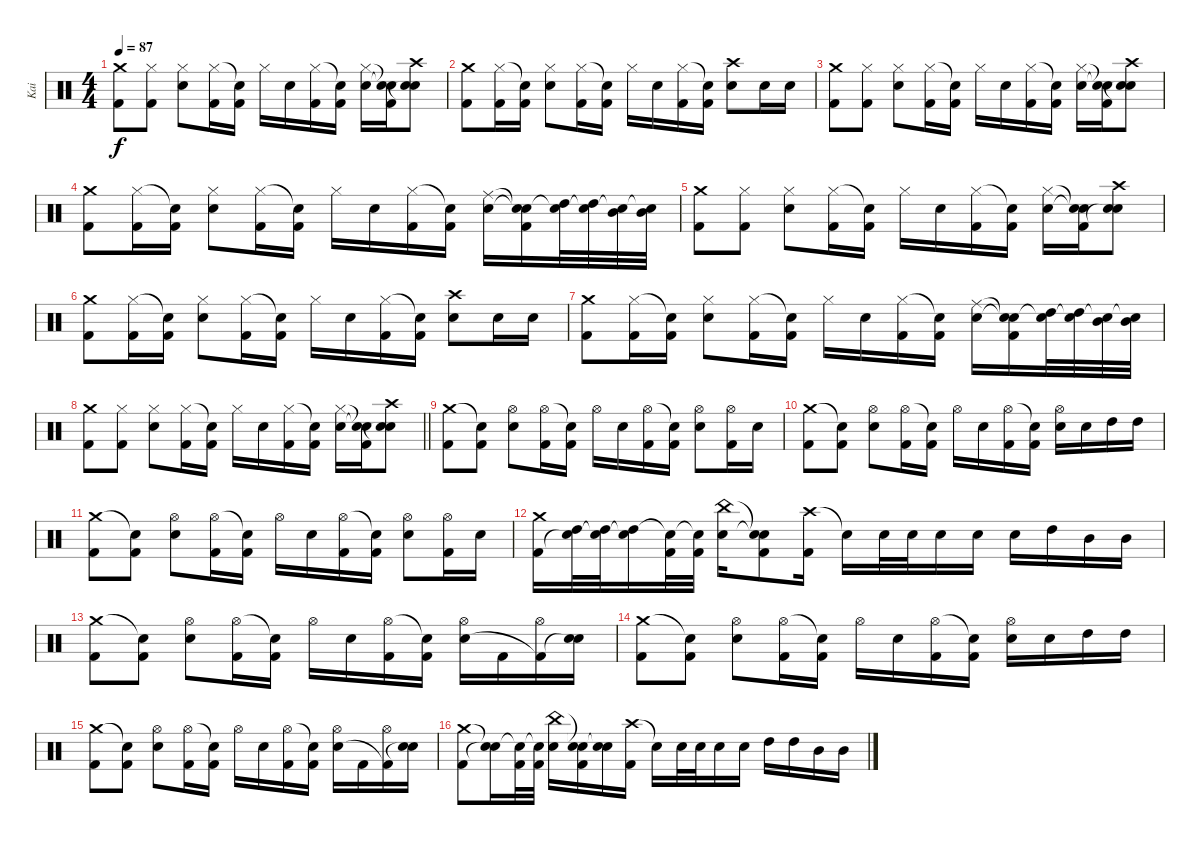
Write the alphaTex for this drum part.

\track ("Kai" "Kai") {instrument percussion}
\staff {score}
\articulation defaults
\ts (4 4)
\tempo 87
\clef neutral
\ks c
("Crash medium (hit)" "Kick (hit) 2").8{dy f} ("Hi-Hat (closed)" "Kick (hit) 2").8 ("Hi-Hat (closed)" "Snare (hit) 2").8 ("Hi-Hat (closed)" "Kick (hit) 2").16 ("Snare (hit)"{t} "Kick (hit) 2").16 "Hi-Hat (closed)".16 "Snare (hit) 2".16 ("Hi-Hat (closed)" "Kick (hit) 2").16 ("Snare (hit)"{t} "Kick (hit) 2").16 ("Hi-Hat (closed)" "Snare (hit) 2").16 ("Snare (hit)"{t} "Snare (hit)"{t} "Kick (hit) 2").16 ("Crash high (hit)" "Snare (hit) 2" "Snare (hit)"{t}).8 |
("Crash medium (hit)" "Kick (hit) 2").8 ("Hi-Hat (closed)" "Kick (hit) 2").16 ("Snare (hit)"{t} "Kick (hit) 2").16 ("Hi-Hat (closed)" "Snare (hit) 2").8 ("Hi-Hat (closed)" "Kick (hit) 2").16 ("Snare (hit)"{t} "Kick (hit) 2").16 "Hi-Hat (closed)".16 "Snare (hit) 2".16 ("Hi-Hat (closed)" "Kick (hit) 2").16 ("Snare (hit)"{t} "Kick (hit) 2").16 ("Crash high (hit)" "Snare (hit) 2").8 "Snare (hit) 2".16 "Snare (hit) 2".16 |
("Crash medium (hit)" "Kick (hit) 2").8 ("Hi-Hat (closed)" "Kick (hit) 2").8 ("Hi-Hat (closed)" "Snare (hit) 2").8 ("Hi-Hat (closed)" "Kick (hit) 2").16 ("Snare (hit)"{t} "Kick (hit) 2").16 "Hi-Hat (closed)".16 "Snare (hit) 2".16 ("Hi-Hat (closed)" "Kick (hit) 2").16 ("Snare (hit)"{t} "Kick (hit) 2").16 ("Hi-Hat (closed)" "Snare (hit) 2").16 ("Snare (hit)"{t} "Snare (hit)"{t} "Kick (hit) 2").16 ("Crash high (hit)" "Snare (hit) 2" "Snare (hit)"{t}).8 |
("Crash medium (hit)" "Kick (hit) 2").8 ("Hi-Hat (closed)" "Kick (hit) 2").16 ("Snare (hit)"{t} "Kick (hit) 2").16 ("Hi-Hat (closed)" "Snare (hit) 2").8 ("Hi-Hat (closed)" "Kick (hit) 2").16 ("Snare (hit)"{t} "Kick (hit) 2").16 "Hi-Hat (closed)".16 "Snare (hit) 2".16 ("Hi-Hat (closed)" "Kick (hit) 2").16 ("Snare (hit)"{t} "Kick (hit) 2").16 ("Ride (middle)" "Snare (hit) 2").16 ("Snare (hit)"{t} "Snare (hit)"{t} "Kick (hit) 2").16 ("High Tom (hit)" "Snare (hit)"{t}).32 ("High Tom (hit)" "Snare (hit)"{t}).32 ("Mid Tom (hit)" "Snare (hit)"{t}).32 ("Mid Tom (hit)" "Snare (hit)"{t}).32 |
("Crash medium (hit)" "Kick (hit) 2").8 ("Hi-Hat (closed)" "Kick (hit) 2").8 ("Hi-Hat (closed)" "Snare (hit) 2").8 ("Hi-Hat (closed)" "Kick (hit) 2").16 ("Snare (hit)"{t} "Kick (hit) 2").16 "Hi-Hat (closed)".16 "Snare (hit) 2".16 ("Hi-Hat (closed)" "Kick (hit) 2").16 ("Snare (hit)"{t} "Kick (hit) 2").16 ("Hi-Hat (closed)" "Snare (hit) 2").16 ("Snare (hit)"{t} "Snare (hit)"{t} "Kick (hit) 2").16 ("Crash high (hit)" "Snare (hit) 2" "Snare (hit)"{t}).8 |
("Crash medium (hit)" "Kick (hit) 2").8 ("Hi-Hat (closed)" "Kick (hit) 2").16 ("Snare (hit)"{t} "Kick (hit) 2").16 ("Hi-Hat (closed)" "Snare (hit) 2").8 ("Hi-Hat (closed)" "Kick (hit) 2").16 ("Snare (hit)"{t} "Kick (hit) 2").16 "Hi-Hat (closed)".16 "Snare (hit) 2".16 ("Hi-Hat (closed)" "Kick (hit) 2").16 ("Snare (hit)"{t} "Kick (hit) 2").16 ("Crash high (hit)" "Snare (hit) 2").8 "Snare (hit) 2".16 "Snare (hit) 2".16 |
("Crash medium (hit)" "Kick (hit) 2").8 ("Hi-Hat (closed)" "Kick (hit) 2").16 ("Snare (hit)"{t} "Kick (hit) 2").16 ("Hi-Hat (closed)" "Snare (hit) 2").8 ("Hi-Hat (closed)" "Kick (hit) 2").16 ("Snare (hit)"{t} "Kick (hit) 2").16 "Hi-Hat (closed)".16 "Snare (hit) 2".16 ("Hi-Hat (closed)" "Kick (hit) 2").16 ("Snare (hit)"{t} "Kick (hit) 2").16 ("Ride (middle)" "Snare (hit) 2").16 ("Snare (hit)"{t} "Snare (hit)"{t} "Kick (hit) 2").16 ("High Tom (hit)" "Snare (hit)"{t}).32 ("High Tom (hit)" "Snare (hit)"{t}).32 ("Mid Tom (hit)" "Snare (hit)"{t}).32 ("Mid Tom (hit)" "Snare (hit)"{t}).32 |
\barLineRight lightlight
("Crash medium (hit)" "Kick (hit) 2").8 ("Hi-Hat (closed)" "Kick (hit) 2").8 ("Hi-Hat (closed)" "Snare (hit) 2").8 ("Hi-Hat (closed)" "Kick (hit) 2").16 ("Snare (hit)"{t} "Kick (hit) 2").16 "Hi-Hat (closed)".16 "Snare (hit) 2".16 ("Hi-Hat (closed)" "Kick (hit) 2").16 ("Snare (hit)"{t} "Kick (hit) 2").16 ("Hi-Hat (closed)" "Snare (hit) 2").16 ("Snare (hit)"{t} "Snare (hit)"{t} "Kick (hit) 2").16 ("Crash high (hit)" "Snare (hit) 2" "Snare (hit)"{t}).8 |
("Crash medium (hit)" "Kick (hit) 2").8 ("Snare (hit)"{t} "Kick (hit) 2").8 ("Hi-Hat (open)" "Snare (hit) 2").8 ("Hi-Hat (open)" "Kick (hit) 2").16 ("Snare (hit)"{t} "Kick (hit) 2").16 "Hi-Hat (open)".16 "Snare (hit) 2".16 ("Hi-Hat (open)" "Kick (hit) 2").16 ("Snare (hit)"{t} "Kick (hit) 2").16 ("Hi-Hat (open)" "Snare (hit) 2").8 ("Hi-Hat (open)" "Kick (hit) 2").16 "Snare (hit) 2".16 |
("Crash medium (hit)" "Kick (hit) 2").8 ("Snare (hit)"{t} "Kick (hit) 2").8 ("Hi-Hat (open)" "Snare (hit) 2").8 ("Hi-Hat (open)" "Kick (hit) 2").16 ("Snare (hit)"{t} "Kick (hit) 2").16 "Hi-Hat (open)".16 "Snare (hit) 2".16 ("Hi-Hat (open)" "Kick (hit) 2").16 ("Snare (hit)"{t} "Kick (hit) 2").16 ("Hi-Hat (open)" "Snare (hit) 2").16 "Snare (hit) 2".16 "High Tom (hit)".16 "High Tom (hit)".16 |
("Crash medium (hit)" "Kick (hit) 2").8 ("Snare (hit)"{t} "Kick (hit) 2").8 ("Hi-Hat (open)" "Snare (hit) 2").8 ("Hi-Hat (open)" "Kick (hit) 2").16 ("Snare (hit)"{t} "Kick (hit) 2").16 "Hi-Hat (open)".16 "Snare (hit) 2".16 ("Hi-Hat (open)" "Kick (hit) 2").16 ("Snare (hit)"{t} "Kick (hit) 2").16 ("Hi-Hat (open)" "Snare (hit) 2").8 ("Hi-Hat (open)" "Kick (hit) 2").16 "Snare (hit) 2".16 |
("Crash medium (hit)" "Kick (hit) 2").16 ("High Tom (hit)" "Snare (hit)"{t}).32 ("High Tom (hit)" "Snare (hit)"{t}).32 ("High Tom (hit)" "Snare (hit)"{t}).16 ("Snare (hit)"{t} "Kick (hit) 2").32 ("Snare (hit)"{t} "Kick (hit) 2").32 ("China (hit)" "Snare (hit) 2").16 ("Snare (hit)"{t} "Snare (hit)"{t} "Kick (hit) 2").8 ("Crash high (hit)" "Kick (hit) 2").16 "Snare (hit)"{t}.16 "Snare (hit) 2".32 "Snare (hit) 2".32 "Snare (hit) 2".16 "Snare (hit) 2".16 "Snare (hit) 2".16 "High Tom (hit)".16 "Mid Tom (hit)".16 "Mid Tom (hit)".16 |
("Crash medium (hit)" "Kick (hit) 2").8 ("Snare (hit)"{t} "Kick (hit) 2").8 ("Hi-Hat (open)" "Snare (hit) 2").8 ("Hi-Hat (open)" "Kick (hit) 2").16 ("Snare (hit)"{t} "Kick (hit) 2").16 "Hi-Hat (open)".16 "Snare (hit) 2".16 ("Hi-Hat (open)" "Kick (hit) 2").16 ("Snare (hit)"{t} "Kick (hit) 2").16 ("Hi-Hat (open)" "Snare (hit) 2").16 "Kick (hit) 2".16 ("Hi-Hat (open)" "Kick (hit) 2"{t}).16 ("Snare (hit) 2" "Snare (hit)"{t}).16 |
("Crash medium (hit)" "Kick (hit) 2").8 ("Snare (hit)"{t} "Kick (hit) 2").8 ("Hi-Hat (open)" "Snare (hit) 2").8 ("Hi-Hat (open)" "Kick (hit) 2").16 ("Snare (hit)"{t} "Kick (hit) 2").16 "Hi-Hat (open)".16 "Snare (hit) 2".16 ("Hi-Hat (open)" "Kick (hit) 2").16 ("Snare (hit)"{t} "Kick (hit) 2").16 ("Hi-Hat (open)" "Snare (hit) 2").16 "Snare (hit) 2".16 "High Tom (hit)".16 "High Tom (hit)".16 |
("Crash medium (hit)" "Kick (hit) 2").8 ("Snare (hit)"{t} "Kick (hit) 2").8 ("Hi-Hat (open)" "Snare (hit) 2").8 ("Hi-Hat (open)" "Kick (hit) 2").16 ("Snare (hit)"{t} "Kick (hit) 2").16 "Hi-Hat (open)".16 "Snare (hit) 2".16 ("Hi-Hat (open)" "Kick (hit) 2").16 ("Snare (hit)"{t} "Kick (hit) 2").16 ("Hi-Hat (open)" "Snare (hit) 2").16 "Kick (hit) 2".16 ("Hi-Hat (open)" "Kick (hit) 2"{t}).16 ("Snare (hit) 2" "Snare (hit)"{t}).16 |
("Crash medium (hit)" "Kick (hit) 2").8 ("Snare (hit)"{t} "Snare (hit)"{t}).16 ("Snare (hit)"{t} "Kick (hit) 2").32 ("Snare (hit)"{t} "Kick (hit) 2").32 ("China (hit)" "Snare (hit) 2").16 ("Snare (hit)"{t} "Snare (hit)"{t} "Kick (hit) 2").16 ("Snare (hit) 2" "Snare (hit)"{t}).16 ("Crash high (hit)" "Kick (hit) 2").16 "Snare (hit)"{t}.16 "Snare (hit) 2".32 "Snare (hit) 2".32 "Snare (hit) 2".16 "Snare (hit) 2".16 "High Tom (hit)".16 "High Tom (hit)".16 "Mid Tom (hit)".16 "Mid Tom (hit)".16
